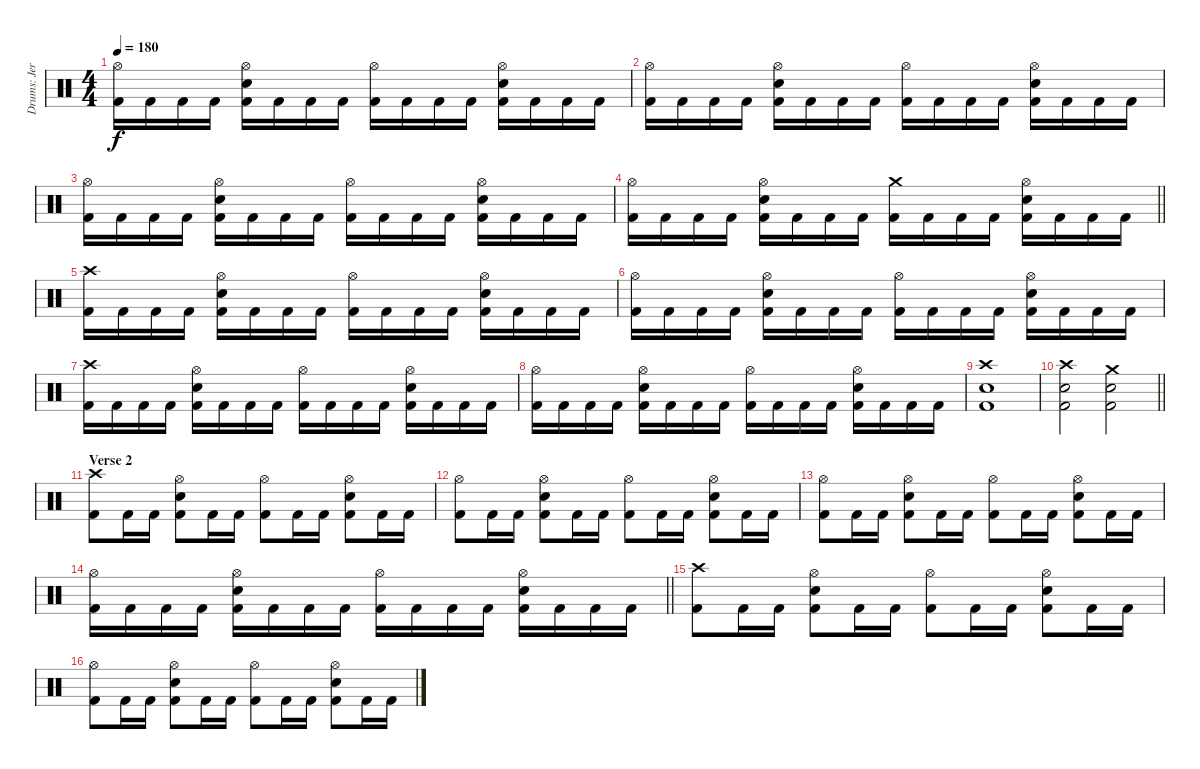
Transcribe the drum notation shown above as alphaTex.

\track ("Drums: Jere Luokkamäki" "Drums: Jer") {instrument percussion}
\staff {score}
\articulation defaults
\ts (4 4)
\tempo 180
\clef neutral
\ks aminor
("Hi-Hat (open)" "Kick (hit) 2").16{dy f} "Kick (hit) 2".16 "Kick (hit) 2".16 "Kick (hit) 2".16 ("Hi-Hat (open)" "Electric Snare (hit)" "Kick (hit) 2").16 "Kick (hit) 2".16 "Kick (hit) 2".16 "Kick (hit) 2".16 ("Hi-Hat (open)" "Kick (hit) 2").16 "Kick (hit) 2".16 "Kick (hit) 2".16 "Kick (hit) 2".16 ("Hi-Hat (open)" "Electric Snare (hit)" "Kick (hit) 2").16 "Kick (hit) 2".16 "Kick (hit) 2".16 "Kick (hit) 2".16 |
("Hi-Hat (open)" "Kick (hit) 2").16 "Kick (hit) 2".16 "Kick (hit) 2".16 "Kick (hit) 2".16 ("Hi-Hat (open)" "Electric Snare (hit)" "Kick (hit) 2").16 "Kick (hit) 2".16 "Kick (hit) 2".16 "Kick (hit) 2".16 ("Hi-Hat (open)" "Kick (hit) 2").16 "Kick (hit) 2".16 "Kick (hit) 2".16 "Kick (hit) 2".16 ("Hi-Hat (open)" "Electric Snare (hit)" "Kick (hit) 2").16 "Kick (hit) 2".16 "Kick (hit) 2".16 "Kick (hit) 2".16 |
("Hi-Hat (open)" "Kick (hit) 2").16 "Kick (hit) 2".16 "Kick (hit) 2".16 "Kick (hit) 2".16 ("Hi-Hat (open)" "Electric Snare (hit)" "Kick (hit) 2").16 "Kick (hit) 2".16 "Kick (hit) 2".16 "Kick (hit) 2".16 ("Hi-Hat (open)" "Kick (hit) 2").16 "Kick (hit) 2".16 "Kick (hit) 2".16 "Kick (hit) 2".16 ("Hi-Hat (open)" "Electric Snare (hit)" "Kick (hit) 2").16 "Kick (hit) 2".16 "Kick (hit) 2".16 "Kick (hit) 2".16 |
\barLineRight lightlight
("Hi-Hat (open)" "Kick (hit) 2").16 "Kick (hit) 2".16 "Kick (hit) 2".16 "Kick (hit) 2".16 ("Hi-Hat (open)" "Electric Snare (hit)" "Kick (hit) 2").16 "Kick (hit) 2".16 "Kick (hit) 2".16 "Kick (hit) 2".16 ("Crash medium (hit)" "Kick (hit) 2").16 "Kick (hit) 2".16 "Kick (hit) 2".16 "Kick (hit) 2".16 ("Hi-Hat (open)" "Electric Snare (hit)" "Kick (hit) 2").16 "Kick (hit) 2".16 "Kick (hit) 2".16 "Kick (hit) 2".16 |
("Crash high (hit)" "Kick (hit) 2").16 "Kick (hit) 2".16 "Kick (hit) 2".16 "Kick (hit) 2".16 ("Hi-Hat (open)" "Electric Snare (hit)" "Kick (hit) 2").16 "Kick (hit) 2".16 "Kick (hit) 2".16 "Kick (hit) 2".16 ("Hi-Hat (open)" "Kick (hit) 2").16 "Kick (hit) 2".16 "Kick (hit) 2".16 "Kick (hit) 2".16 ("Hi-Hat (open)" "Electric Snare (hit)" "Kick (hit) 2").16 "Kick (hit) 2".16 "Kick (hit) 2".16 "Kick (hit) 2".16 |
("Hi-Hat (open)" "Kick (hit) 2").16 "Kick (hit) 2".16 "Kick (hit) 2".16 "Kick (hit) 2".16 ("Hi-Hat (open)" "Electric Snare (hit)" "Kick (hit) 2").16 "Kick (hit) 2".16 "Kick (hit) 2".16 "Kick (hit) 2".16 ("Hi-Hat (open)" "Kick (hit) 2").16 "Kick (hit) 2".16 "Kick (hit) 2".16 "Kick (hit) 2".16 ("Hi-Hat (open)" "Electric Snare (hit)" "Kick (hit) 2").16 "Kick (hit) 2".16 "Kick (hit) 2".16 "Kick (hit) 2".16 |
("Crash high (hit)" "Kick (hit) 2").16 "Kick (hit) 2".16 "Kick (hit) 2".16 "Kick (hit) 2".16 ("Hi-Hat (open)" "Electric Snare (hit)" "Kick (hit) 2").16 "Kick (hit) 2".16 "Kick (hit) 2".16 "Kick (hit) 2".16 ("Hi-Hat (open)" "Kick (hit) 2").16 "Kick (hit) 2".16 "Kick (hit) 2".16 "Kick (hit) 2".16 ("Hi-Hat (open)" "Electric Snare (hit)" "Kick (hit) 2").16 "Kick (hit) 2".16 "Kick (hit) 2".16 "Kick (hit) 2".16 |
("Hi-Hat (open)" "Kick (hit) 2").16 "Kick (hit) 2".16 "Kick (hit) 2".16 "Kick (hit) 2".16 ("Hi-Hat (open)" "Electric Snare (hit)" "Kick (hit) 2").16 "Kick (hit) 2".16 "Kick (hit) 2".16 "Kick (hit) 2".16 ("Hi-Hat (open)" "Kick (hit) 2").16 "Kick (hit) 2".16 "Kick (hit) 2".16 "Kick (hit) 2".16 ("Hi-Hat (open)" "Electric Snare (hit)" "Kick (hit) 2").16 "Kick (hit) 2".16 "Kick (hit) 2".16 "Kick (hit) 2".16 |
("Crash high (hit)" "Electric Snare (hit)" "Kick (hit) 2").1 |
\barLineRight lightlight
("Crash high (hit)" "Electric Snare (hit)" "Kick (hit) 2").2 ("Crash medium (hit)" "Electric Snare (hit)" "Kick (hit) 2").2 |
\section ("" "Verse 2")
("Crash high (hit)" "Kick (hit) 2").8 "Kick (hit) 2".16 "Kick (hit) 2".16 ("Hi-Hat (open)" "Electric Snare (hit)" "Kick (hit) 2").8 "Kick (hit) 2".16 "Kick (hit) 2".16 ("Hi-Hat (open)" "Kick (hit) 2").8 "Kick (hit) 2".16 "Kick (hit) 2".16 ("Hi-Hat (open)" "Electric Snare (hit)" "Kick (hit) 2").8 "Kick (hit) 2".16 "Kick (hit) 2".16 |
("Hi-Hat (open)" "Kick (hit) 2").8 "Kick (hit) 2".16 "Kick (hit) 2".16 ("Hi-Hat (open)" "Electric Snare (hit)" "Kick (hit) 2").8 "Kick (hit) 2".16 "Kick (hit) 2".16 ("Hi-Hat (open)" "Kick (hit) 2").8 "Kick (hit) 2".16 "Kick (hit) 2".16 ("Hi-Hat (open)" "Electric Snare (hit)" "Kick (hit) 2").8 "Kick (hit) 2".16 "Kick (hit) 2".16 |
("Hi-Hat (open)" "Kick (hit) 2").8 "Kick (hit) 2".16 "Kick (hit) 2".16 ("Hi-Hat (open)" "Electric Snare (hit)" "Kick (hit) 2").8 "Kick (hit) 2".16 "Kick (hit) 2".16 ("Hi-Hat (open)" "Kick (hit) 2").8 "Kick (hit) 2".16 "Kick (hit) 2".16 ("Hi-Hat (open)" "Electric Snare (hit)" "Kick (hit) 2").8 "Kick (hit) 2".16 "Kick (hit) 2".16 |
\barLineRight lightlight
("Hi-Hat (open)" "Kick (hit) 2").16 "Kick (hit) 2".16 "Kick (hit) 2".16 "Kick (hit) 2".16 ("Hi-Hat (open)" "Electric Snare (hit)" "Kick (hit) 2").16 "Kick (hit) 2".16 "Kick (hit) 2".16 "Kick (hit) 2".16 ("Hi-Hat (open)" "Kick (hit) 2").16 "Kick (hit) 2".16 "Kick (hit) 2".16 "Kick (hit) 2".16 ("Hi-Hat (open)" "Electric Snare (hit)" "Kick (hit) 2").16 "Kick (hit) 2".16 "Kick (hit) 2".16 "Kick (hit) 2".16 |
("Crash high (hit)" "Kick (hit) 2").8 "Kick (hit) 2".16 "Kick (hit) 2".16 ("Hi-Hat (open)" "Electric Snare (hit)" "Kick (hit) 2").8 "Kick (hit) 2".16 "Kick (hit) 2".16 ("Hi-Hat (open)" "Kick (hit) 2").8 "Kick (hit) 2".16 "Kick (hit) 2".16 ("Hi-Hat (open)" "Electric Snare (hit)" "Kick (hit) 2").8 "Kick (hit) 2".16 "Kick (hit) 2".16 |
("Hi-Hat (open)" "Kick (hit) 2").8 "Kick (hit) 2".16 "Kick (hit) 2".16 ("Hi-Hat (open)" "Electric Snare (hit)" "Kick (hit) 2").8 "Kick (hit) 2".16 "Kick (hit) 2".16 ("Hi-Hat (open)" "Kick (hit) 2").8 "Kick (hit) 2".16 "Kick (hit) 2".16 ("Hi-Hat (open)" "Electric Snare (hit)" "Kick (hit) 2").8 "Kick (hit) 2".16 "Kick (hit) 2".16
